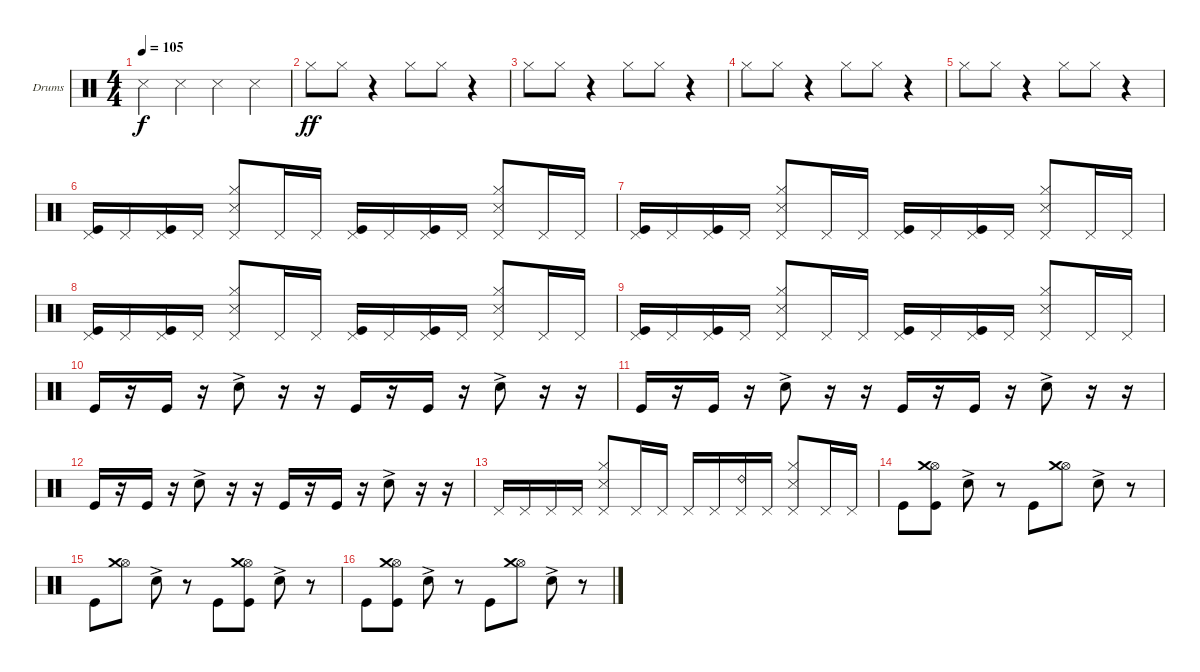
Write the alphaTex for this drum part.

\bracketExtendMode groupsimilarinstruments
\firstSystemTrackNameOrientation horizontal
\otherSystemsTrackNameOrientation horizontal
\track ("Drumkit" "Drums") {instrument percussion}
\staff {score}
\articulation defaults
\ts (4 4)
\beaming (8 2 2 2 2)
\tempo 105
\clef neutral
\ks c "Snare (side stick) 3".4{dy f} "Snare (side stick) 3".4 "Snare (side stick) 3".4 "Snare (side stick) 3".4
|
"Hi-Hat (closed)".8{dy ff} "Hi-Hat (closed)".8 r.4 "Hi-Hat (closed)".8 "Hi-Hat (closed)".8 r.4 |
"Hi-Hat (closed)".8 "Hi-Hat (closed)".8 r.4 "Hi-Hat (closed)".8 "Hi-Hat (closed)".8 r.4 |
"Hi-Hat (closed)".8 "Hi-Hat (closed)".8 r.4 "Hi-Hat (closed)".8 "Hi-Hat (closed)".8 r.4 |
"Hi-Hat (closed)".8 "Hi-Hat (closed)".8 r.4 "Hi-Hat (closed)".8 "Hi-Hat (closed)".8 r.4 |
("Kick (hit)" "Pedal Hi-Hat (hit)").16 "Pedal Hi-Hat (hit)".16 ("Kick (hit)" "Pedal Hi-Hat (hit)").16 "Pedal Hi-Hat (hit)".16 ("Snare (side stick) 3" "Pedal Hi-Hat (hit)" "Hi-Hat (closed)").8 "Pedal Hi-Hat (hit)".16 "Pedal Hi-Hat (hit)".16 ("Kick (hit)" "Pedal Hi-Hat (hit)").16 "Pedal Hi-Hat (hit)".16 ("Kick (hit)" "Pedal Hi-Hat (hit)").16 "Pedal Hi-Hat (hit)".16 ("Snare (side stick) 3" "Pedal Hi-Hat (hit)" "Hi-Hat (closed)").8 "Pedal Hi-Hat (hit)".16 "Pedal Hi-Hat (hit)".16 |
("Pedal Hi-Hat (hit)" "Kick (hit)").16 "Pedal Hi-Hat (hit)".16 ("Kick (hit)" "Pedal Hi-Hat (hit)").16 "Pedal Hi-Hat (hit)".16 ("Snare (side stick) 3" "Pedal Hi-Hat (hit)" "Hi-Hat (closed)").8 "Pedal Hi-Hat (hit)".16 "Pedal Hi-Hat (hit)".16 ("Kick (hit)" "Pedal Hi-Hat (hit)").16 "Pedal Hi-Hat (hit)".16 ("Kick (hit)" "Pedal Hi-Hat (hit)").16 "Pedal Hi-Hat (hit)".16 ("Snare (side stick) 3" "Pedal Hi-Hat (hit)" "Hi-Hat (closed)").8 "Pedal Hi-Hat (hit)".16 "Pedal Hi-Hat (hit)".16 |
("Kick (hit)" "Pedal Hi-Hat (hit)").16 "Pedal Hi-Hat (hit)".16 ("Kick (hit)" "Pedal Hi-Hat (hit)").16 "Pedal Hi-Hat (hit)".16 ("Snare (side stick) 3" "Pedal Hi-Hat (hit)" "Hi-Hat (closed)").8 "Pedal Hi-Hat (hit)".16 "Pedal Hi-Hat (hit)".16 ("Kick (hit)" "Pedal Hi-Hat (hit)").16 "Pedal Hi-Hat (hit)".16 ("Kick (hit)" "Pedal Hi-Hat (hit)").16 "Pedal Hi-Hat (hit)".16 ("Snare (side stick) 3" "Pedal Hi-Hat (hit)" "Hi-Hat (closed)").8 "Pedal Hi-Hat (hit)".16 "Pedal Hi-Hat (hit)".16 |
("Kick (hit)" "Pedal Hi-Hat (hit)").16 "Pedal Hi-Hat (hit)".16 ("Kick (hit)" "Pedal Hi-Hat (hit)").16 "Pedal Hi-Hat (hit)".16 ("Snare (side stick) 3" "Pedal Hi-Hat (hit)" "Hi-Hat (closed)").8 "Pedal Hi-Hat (hit)".16 "Pedal Hi-Hat (hit)".16 ("Kick (hit)" "Pedal Hi-Hat (hit)").16 "Pedal Hi-Hat (hit)".16 ("Kick (hit)" "Pedal Hi-Hat (hit)").16 "Pedal Hi-Hat (hit)".16 ("Snare (side stick) 3" "Pedal Hi-Hat (hit)" "Hi-Hat (closed)").8 "Pedal Hi-Hat (hit)".16 "Pedal Hi-Hat (hit)".16 |
"Kick (hit)".16 r.16 "Kick (hit)".16 r.16 "Snare (hit) 2"{ac}.8 r.16 r.16 "Kick (hit)".16 r.16 "Kick (hit)".16 r.16 "Snare (hit) 2"{ac}.8 r.16 r.16 |
"Kick (hit)".16 r.16 "Kick (hit)".16 r.16 "Snare (hit) 2"{ac}.8 r.16 r.16 "Kick (hit)".16 r.16 "Kick (hit)".16 r.16 "Snare (hit) 2"{ac}.8 r.16 r.16 |
"Kick (hit)".16 r.16 "Kick (hit)".16 r.16 "Snare (hit) 2"{ac}.8 r.16 r.16 "Kick (hit)".16 r.16 "Kick (hit)".16 r.16 "Snare (hit) 2"{ac}.8 r.16 r.16 |
"Pedal Hi-Hat (hit)".16 "Pedal Hi-Hat (hit)".16 "Pedal Hi-Hat (hit)".16 "Pedal Hi-Hat (hit)".16 ("Snare (side stick) 3" "Pedal Hi-Hat (hit)" "Hi-Hat (closed)").8 "Pedal Hi-Hat (hit)".16 "Pedal Hi-Hat (hit)".16 "Pedal Hi-Hat (hit)".16 "Pedal Hi-Hat (hit)".16 ("Pedal Hi-Hat (hit)" "Ride (bell) 2").16 "Pedal Hi-Hat (hit)".16 ("Snare (side stick) 3" "Pedal Hi-Hat (hit)" "Hi-Hat (closed)").8 "Pedal Hi-Hat (hit)".16 "Pedal Hi-Hat (hit)".16 |
"Kick (hit)".8 ("Kick (hit)" "Hi-Hat (open)" "Crash medium (hit)").8 "Snare (hit) 2"{ac}.8 r.8 "Kick (hit)".8 ("Hi-Hat (open)" "Crash medium (hit)").8 "Snare (hit) 2"{ac}.8 r.8 |
"Kick (hit)".8 ("Hi-Hat (open)" "Crash medium (hit)").8 "Snare (hit) 2"{ac}.8 r.8 "Kick (hit)".8 ("Kick (hit)" "Hi-Hat (open)" "Crash medium (hit)").8 "Snare (hit) 2"{ac}.8 r.8 |
"Kick (hit)".8 ("Kick (hit)" "Hi-Hat (open)" "Crash medium (hit)").8 "Snare (hit) 2"{ac}.8 r.8 "Kick (hit)".8 ("Hi-Hat (open)" "Crash medium (hit)").8 "Snare (hit) 2"{ac}.8 r.8
